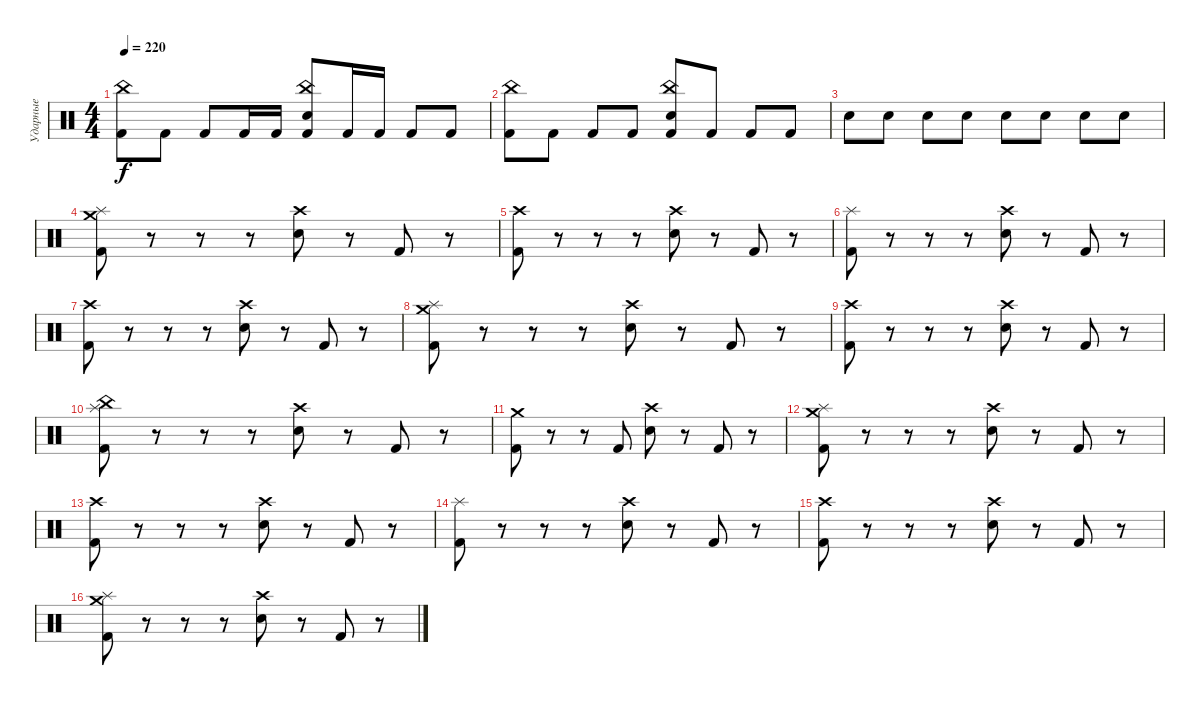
\track ("Ударные" "Ударные") {instrument percussion}
\staff {score}
\articulation defaults
\ts (4 4)
\tempo 220
\clef neutral
\ks c
("Kick (hit) 2" "China (hit)").8{dy f} "Kick (hit) 2".8 "Kick (hit) 2".8 "Kick (hit) 2".16 "Kick (hit) 2".16 ("Kick (hit) 2" "Electric Snare (hit)" "China (hit)").8 "Kick (hit) 2".16 "Kick (hit) 2".16 "Kick (hit) 2".8 "Kick (hit) 2".8 |
("Kick (hit) 2" "China (hit)").8 "Kick (hit) 2".8 "Kick (hit) 2".8 "Kick (hit) 2".8 ("Kick (hit) 2" "Electric Snare (hit)" "China (hit)").8 "Kick (hit) 2".8 "Kick (hit) 2".8 "Kick (hit) 2".8 |
"Electric Snare (hit)".8 "Electric Snare (hit)".8 "Electric Snare (hit)".8 "Electric Snare (hit)".8 "Electric Snare (hit)".8 "Electric Snare (hit)".8 "Electric Snare (hit)".8 "Electric Snare (hit)".8 |
("Kick (hit) 2" "Splash (hit)" "Crash medium (hit)").8 r.8 r.8 r.8 ("Electric Snare (hit)" "Crash high (hit)").8 r.8 "Kick (hit) 2".8 r.8 |
("Kick (hit) 2" "Crash high (hit)").8 r.8 r.8 r.8 ("Electric Snare (hit)" "Crash high (hit)").8 r.8 "Kick (hit) 2".8 r.8 |
("Kick (hit) 2" "Splash (hit)").8 r.8 r.8 r.8 ("Electric Snare (hit)" "Crash high (hit)").8 r.8 "Kick (hit) 2".8 r.8 |
("Kick (hit) 2" "Crash high (hit)").8 r.8 r.8 r.8 ("Electric Snare (hit)" "Crash high (hit)").8 r.8 "Kick (hit) 2".8 r.8 |
("Kick (hit) 2" "Splash (hit)" "Crash medium (hit)").8 r.8 r.8 r.8 ("Electric Snare (hit)" "Crash high (hit)").8 r.8 "Kick (hit) 2".8 r.8 |
("Kick (hit) 2" "Crash high (hit)").8 r.8 r.8 r.8 ("Electric Snare (hit)" "Crash high (hit)").8 r.8 "Kick (hit) 2".8 r.8 |
("Kick (hit) 2" "China (hit)" "Splash (hit)").8 r.8 r.8 r.8 ("Electric Snare (hit)" "Crash high (hit)").8 r.8 "Kick (hit) 2".8 r.8 |
("Kick (hit) 2" "Crash medium (hit)").8 r.8 r.8 "Kick (hit) 2".8 ("Electric Snare (hit)" "Crash high (hit)").8 r.8 "Kick (hit) 2".8 r.8 |
("Kick (hit) 2" "Splash (hit)" "Crash medium (hit)").8 r.8 r.8 r.8 ("Electric Snare (hit)" "Crash high (hit)").8 r.8 "Kick (hit) 2".8 r.8 |
("Kick (hit) 2" "Crash high (hit)").8 r.8 r.8 r.8 ("Electric Snare (hit)" "Crash high (hit)").8 r.8 "Kick (hit) 2".8 r.8 |
("Kick (hit) 2" "Splash (hit)").8 r.8 r.8 r.8 ("Electric Snare (hit)" "Crash high (hit)").8 r.8 "Kick (hit) 2".8 r.8 |
("Kick (hit) 2" "Crash high (hit)").8 r.8 r.8 r.8 ("Electric Snare (hit)" "Crash high (hit)").8 r.8 "Kick (hit) 2".8 r.8 |
("Kick (hit) 2" "Splash (hit)" "Crash medium (hit)").8 r.8 r.8 r.8 ("Electric Snare (hit)" "Crash high (hit)").8 r.8 "Kick (hit) 2".8 r.8
